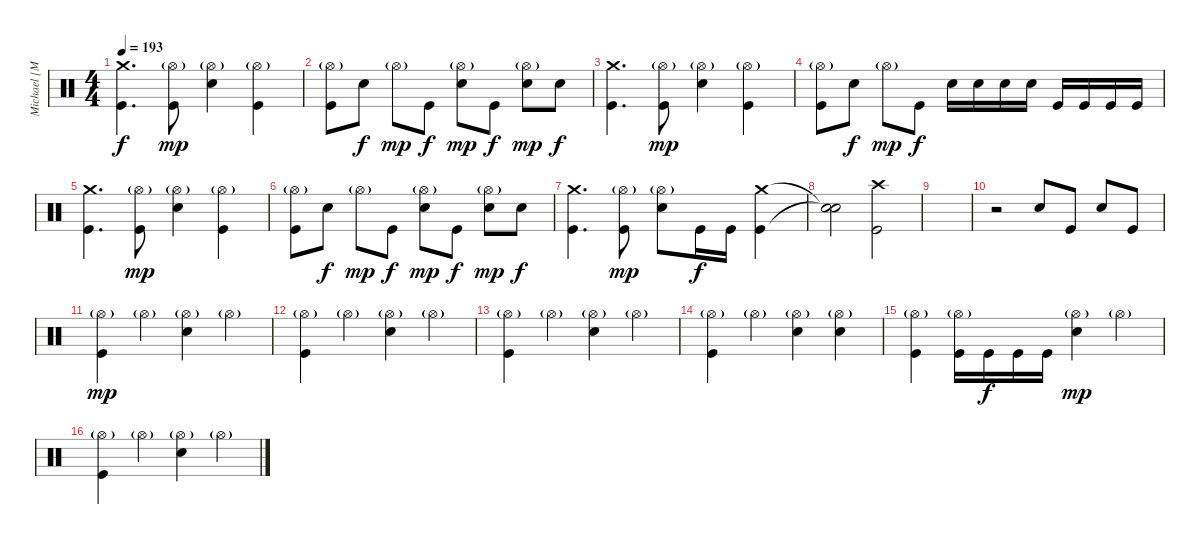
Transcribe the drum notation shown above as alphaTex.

\track ("Michael [Moose] Thomas" "Michael [M") {instrument percussion}
\staff {score}
\articulation defaults
\ts (4 4)
\tempo 193
\clef neutral
\ks c
("Crash medium (hit)" "Kick (hit)").4{d dy f} ("Hi-Hat (open)"{g} "Kick (hit)").8{dy mp} ("Hi-Hat (open)"{g} "Snare (hit) 2").4 ("Hi-Hat (open)"{g} "Kick (hit)").4 |
("Hi-Hat (open)"{g} "Kick (hit)").8 "Snare (hit) 2".8{dy f} "Hi-Hat (open)"{g}.8{dy mp} "Kick (hit)".8{dy f} ("Hi-Hat (open)"{g} "Snare (hit) 2").8{dy mp} "Kick (hit)".8{dy f} ("Hi-Hat (open)"{g} "Snare (hit) 2").8{dy mp} "Snare (hit) 2".8{dy f} |
("Crash medium (hit)" "Kick (hit)").4{d} ("Hi-Hat (open)"{g} "Kick (hit)").8{dy mp} ("Hi-Hat (open)"{g} "Snare (hit) 2").4 ("Hi-Hat (open)"{g} "Kick (hit)").4 |
("Hi-Hat (open)"{g} "Kick (hit)").8 "Snare (hit) 2".8{dy f} "Hi-Hat (open)"{g}.8{dy mp} "Kick (hit)".8{dy f} "Snare (hit) 2".16 "Snare (hit) 2".16 "Snare (hit) 2".16 "Snare (hit) 2".16 "Kick (hit)".16 "Kick (hit)".16 "Kick (hit)".16 "Kick (hit)".16 |
("Crash medium (hit)" "Kick (hit)").4{d} ("Hi-Hat (open)"{g} "Kick (hit)").8{dy mp} ("Hi-Hat (open)"{g} "Snare (hit) 2").4 ("Hi-Hat (open)"{g} "Kick (hit)").4 |
("Hi-Hat (open)"{g} "Kick (hit)").8 "Snare (hit) 2".8{dy f} "Hi-Hat (open)"{g}.8{dy mp} "Kick (hit)".8{dy f} ("Hi-Hat (open)"{g} "Snare (hit) 2").8{dy mp} "Kick (hit)".8{dy f} ("Hi-Hat (open)"{g} "Snare (hit) 2").8{dy mp} "Snare (hit) 2".8{dy f} |
("Crash medium (hit)" "Kick (hit)").4{d} ("Hi-Hat (open)"{g} "Kick (hit)").8{dy mp} ("Hi-Hat (open)"{g} "Snare (hit) 2").8 "Kick (hit)".16{dy f} "Kick (hit)".16 ("Crash medium (hit)" "Kick (hit)").4 |
("Snare (hit)"{t} "Snare (hit)"{t}).2 ("Crash high (hit)" "Kick (hit)").2 |
|
r.2 "Snare (hit) 2".8 "Kick (hit)".8 "Snare (hit) 2".8 "Kick (hit)".8 |
("Hi-Hat (open)"{g} "Kick (hit)").4{dy mp} "Hi-Hat (open)"{g}.4 ("Hi-Hat (open)"{g} "Snare (hit) 2").4 "Hi-Hat (open)"{g}.4 |
("Hi-Hat (open)"{g} "Kick (hit)").4 "Hi-Hat (open)"{g}.4 ("Hi-Hat (open)"{g} "Snare (hit) 2").4 "Hi-Hat (open)"{g}.4 |
("Hi-Hat (open)"{g} "Kick (hit)").4 "Hi-Hat (open)"{g}.4 ("Hi-Hat (open)"{g} "Snare (hit) 2").4 "Hi-Hat (open)"{g}.4 |
("Hi-Hat (open)"{g} "Kick (hit)").4 "Hi-Hat (open)"{g}.4 ("Hi-Hat (open)"{g} "Snare (hit) 2").4 ("Hi-Hat (open)"{g} "Snare (hit) 2").4 |
("Hi-Hat (open)"{g} "Kick (hit)").4 ("Hi-Hat (open)"{g} "Kick (hit)").16 "Kick (hit)".16{dy f} "Kick (hit)".16 "Kick (hit)".16 ("Hi-Hat (open)"{g} "Snare (hit) 2").4{dy mp} "Hi-Hat (open)"{g}.4 |
("Hi-Hat (open)"{g} "Kick (hit)").4 "Hi-Hat (open)"{g}.4 ("Hi-Hat (open)"{g} "Snare (hit) 2").4 "Hi-Hat (open)"{g}.4
